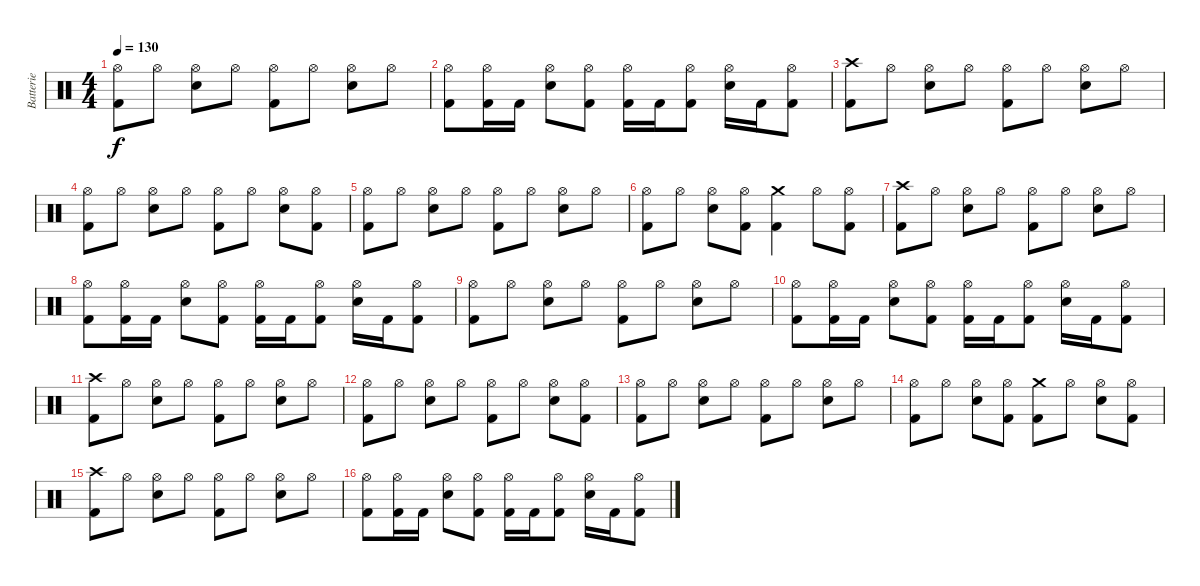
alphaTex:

\track ("Batterie" "Batterie") {instrument percussion}
\staff {score}
\articulation defaults
\ts (4 4)
\tempo 130
\clef neutral
\ks c
("Hi-Hat (open)" "Kick (hit) 2").8{dy f} "Hi-Hat (open)".8 ("Hi-Hat (open)" "Electric Snare (hit)").8 "Hi-Hat (open)".8 ("Hi-Hat (open)" "Kick (hit) 2").8 "Hi-Hat (open)".8 ("Hi-Hat (open)" "Electric Snare (hit)").8 "Hi-Hat (open)".8 |
("Hi-Hat (open)" "Kick (hit) 2").8 ("Hi-Hat (open)" "Kick (hit) 2").16 "Kick (hit) 2".16 ("Hi-Hat (open)" "Electric Snare (hit)").8 ("Hi-Hat (open)" "Kick (hit) 2").8 ("Hi-Hat (open)" "Kick (hit) 2").16 "Kick (hit) 2".16 ("Hi-Hat (open)" "Kick (hit) 2").8 ("Hi-Hat (open)" "Electric Snare (hit)").16 "Kick (hit) 2".16 ("Hi-Hat (open)" "Kick (hit) 2").8 |
("Crash high (hit)" "Kick (hit) 2").8 "Hi-Hat (open)".8 ("Hi-Hat (open)" "Electric Snare (hit)").8 "Hi-Hat (open)".8 ("Hi-Hat (open)" "Kick (hit) 2").8 "Hi-Hat (open)".8 ("Hi-Hat (open)" "Electric Snare (hit)").8 "Hi-Hat (open)".8 |
("Hi-Hat (open)" "Kick (hit) 2").8 "Hi-Hat (open)".8 ("Hi-Hat (open)" "Electric Snare (hit)").8 "Hi-Hat (open)".8 ("Hi-Hat (open)" "Kick (hit) 2").8 "Hi-Hat (open)".8 ("Hi-Hat (open)" "Electric Snare (hit)").8 ("Hi-Hat (open)" "Kick (hit) 2").8 |
("Hi-Hat (open)" "Kick (hit) 2").8 "Hi-Hat (open)".8 ("Hi-Hat (open)" "Electric Snare (hit)").8 "Hi-Hat (open)".8 ("Hi-Hat (open)" "Kick (hit) 2").8 "Hi-Hat (open)".8 ("Hi-Hat (open)" "Electric Snare (hit)").8 "Hi-Hat (open)".8 |
("Hi-Hat (open)" "Kick (hit) 2").8 "Hi-Hat (open)".8 ("Hi-Hat (open)" "Electric Snare (hit)").8 ("Hi-Hat (open)" "Kick (hit) 2").8 ("Crash medium (hit)" "Kick (hit) 2").4 "Hi-Hat (open)".8 ("Hi-Hat (open)" "Kick (hit) 2").8 |
("Crash high (hit)" "Kick (hit) 2").8 "Hi-Hat (open)".8 ("Hi-Hat (open)" "Electric Snare (hit)").8 "Hi-Hat (open)".8 ("Hi-Hat (open)" "Kick (hit) 2").8 "Hi-Hat (open)".8 ("Hi-Hat (open)" "Electric Snare (hit)").8 "Hi-Hat (open)".8 |
("Hi-Hat (open)" "Kick (hit) 2").8 ("Hi-Hat (open)" "Kick (hit) 2").16 "Kick (hit) 2".16 ("Hi-Hat (open)" "Electric Snare (hit)").8 ("Hi-Hat (open)" "Kick (hit) 2").8 ("Hi-Hat (open)" "Kick (hit) 2").16 "Kick (hit) 2".16 ("Hi-Hat (open)" "Kick (hit) 2").8 ("Hi-Hat (open)" "Electric Snare (hit)").16 "Kick (hit) 2".16 ("Hi-Hat (open)" "Kick (hit) 2").8 |
("Hi-Hat (open)" "Kick (hit) 2").8 "Hi-Hat (open)".8 ("Hi-Hat (open)" "Electric Snare (hit)").8 "Hi-Hat (open)".8 ("Hi-Hat (open)" "Kick (hit) 2").8 "Hi-Hat (open)".8 ("Hi-Hat (open)" "Electric Snare (hit)").8 "Hi-Hat (open)".8 |
("Hi-Hat (open)" "Kick (hit) 2").8 ("Hi-Hat (open)" "Kick (hit) 2").16 "Kick (hit) 2".16 ("Hi-Hat (open)" "Electric Snare (hit)").8 ("Hi-Hat (open)" "Kick (hit) 2").8 ("Hi-Hat (open)" "Kick (hit) 2").16 "Kick (hit) 2".16 ("Hi-Hat (open)" "Kick (hit) 2").8 ("Hi-Hat (open)" "Electric Snare (hit)").16 "Kick (hit) 2".16 ("Hi-Hat (open)" "Kick (hit) 2").8 |
("Crash high (hit)" "Kick (hit) 2").8 "Hi-Hat (open)".8 ("Hi-Hat (open)" "Electric Snare (hit)").8 "Hi-Hat (open)".8 ("Hi-Hat (open)" "Kick (hit) 2").8 "Hi-Hat (open)".8 ("Hi-Hat (open)" "Electric Snare (hit)").8 "Hi-Hat (open)".8 |
("Hi-Hat (open)" "Kick (hit) 2").8 "Hi-Hat (open)".8 ("Hi-Hat (open)" "Electric Snare (hit)").8 "Hi-Hat (open)".8 ("Hi-Hat (open)" "Kick (hit) 2").8 "Hi-Hat (open)".8 ("Hi-Hat (open)" "Electric Snare (hit)").8 ("Hi-Hat (open)" "Kick (hit) 2").8 |
("Hi-Hat (open)" "Kick (hit) 2").8 "Hi-Hat (open)".8 ("Hi-Hat (open)" "Electric Snare (hit)").8 "Hi-Hat (open)".8 ("Hi-Hat (open)" "Kick (hit) 2").8 "Hi-Hat (open)".8 ("Hi-Hat (open)" "Electric Snare (hit)").8 "Hi-Hat (open)".8 |
("Hi-Hat (open)" "Kick (hit) 2").8 "Hi-Hat (open)".8 ("Hi-Hat (open)" "Electric Snare (hit)").8 ("Hi-Hat (open)" "Kick (hit) 2").8 ("Crash medium (hit)" "Kick (hit) 2").8 "Hi-Hat (open)".8 ("Hi-Hat (open)" "Electric Snare (hit)").8 ("Hi-Hat (open)" "Kick (hit) 2").8 |
("Crash high (hit)" "Kick (hit) 2").8 "Hi-Hat (open)".8 ("Hi-Hat (open)" "Electric Snare (hit)").8 "Hi-Hat (open)".8 ("Hi-Hat (open)" "Kick (hit) 2").8 "Hi-Hat (open)".8 ("Hi-Hat (open)" "Electric Snare (hit)").8 "Hi-Hat (open)".8 |
("Hi-Hat (open)" "Kick (hit) 2").8 ("Hi-Hat (open)" "Kick (hit) 2").16 "Kick (hit) 2".16 ("Hi-Hat (open)" "Electric Snare (hit)").8 ("Hi-Hat (open)" "Kick (hit) 2").8 ("Hi-Hat (open)" "Kick (hit) 2").16 "Kick (hit) 2".16 ("Hi-Hat (open)" "Kick (hit) 2").8 ("Hi-Hat (open)" "Electric Snare (hit)").16 "Kick (hit) 2".16 ("Hi-Hat (open)" "Kick (hit) 2").8
